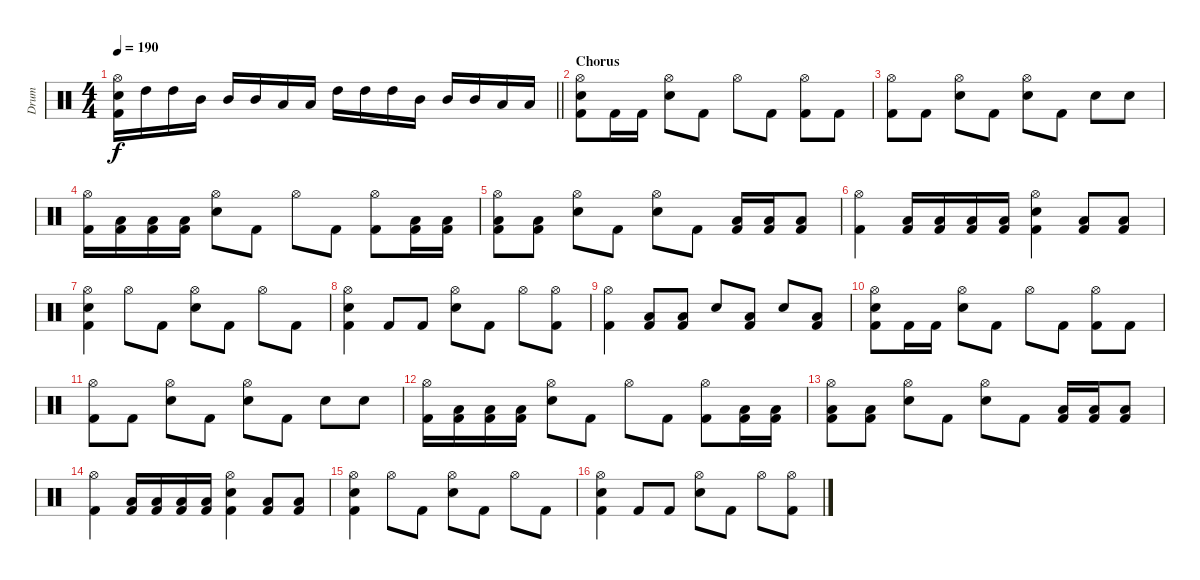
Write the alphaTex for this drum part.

\track ("Drum" "Drum") {instrument percussion}
\staff {score}
\articulation defaults
\ts (4 4)
\tempo 190
\clef neutral
\barLineRight lightlight
\ks c
("Hi-Hat (open)" "Snare (hit) 2" "Kick (hit) 2").16{dy f} "High Tom (hit)".16 "High Tom (hit)".16 "Mid Tom (hit)".16 "Mid Tom (hit)".16 "Mid Tom (hit)".16 "Low Tom (hit)".16 "Low Tom (hit)".16 "High Tom (hit)".16 "High Tom (hit)".16 "High Tom (hit)".16 "Mid Tom (hit)".16 "Mid Tom (hit)".16 "Mid Tom (hit)".16 "Low Tom (hit)".16 "Low Tom (hit)".16 |
\section ("" "Chorus")
("Hi-Hat (open)" "Snare (hit) 2" "Kick (hit) 2").8 "Kick (hit) 2".16 "Kick (hit) 2".16 ("Hi-Hat (open)" "Snare (hit) 2").8 "Kick (hit) 2".8 "Hi-Hat (open)".8 "Kick (hit) 2".8 ("Hi-Hat (open)" "Kick (hit) 2").8 "Kick (hit) 2".8 |
("Hi-Hat (open)" "Kick (hit) 2").8 "Kick (hit) 2".8 ("Hi-Hat (open)" "Snare (hit) 2").8 "Kick (hit) 2".8 ("Hi-Hat (open)" "Snare (hit) 2").8 "Kick (hit) 2".8 "Snare (hit) 2".8 "Snare (hit) 2".8 |
("Hi-Hat (open)" "Kick (hit) 2").16 ("Low Floor Tom (hit)" "Kick (hit) 2").16 ("Low Floor Tom (hit)" "Kick (hit) 2").16 ("Low Floor Tom (hit)" "Kick (hit) 2").16 ("Hi-Hat (open)" "Snare (hit) 2").8 "Kick (hit) 2".8 "Hi-Hat (open)".8 "Kick (hit) 2".8 ("Hi-Hat (open)" "Kick (hit) 2").8 ("Low Floor Tom (hit)" "Kick (hit) 2").16 ("Low Floor Tom (hit)" "Kick (hit) 2").16 |
("Hi-Hat (open)" "Low Floor Tom (hit)" "Kick (hit) 2").8 ("Low Floor Tom (hit)" "Kick (hit) 2").8 ("Hi-Hat (open)" "Snare (hit) 2").8 "Kick (hit) 2".8 ("Hi-Hat (open)" "Snare (hit) 2").8 "Kick (hit) 2".8 ("Low Floor Tom (hit)" "Kick (hit) 2").16 ("Low Floor Tom (hit)" "Kick (hit) 2").16 ("Low Floor Tom (hit)" "Kick (hit) 2").8 |
("Hi-Hat (open)" "Kick (hit) 2").4 ("Low Floor Tom (hit)" "Kick (hit) 2").16 ("Low Floor Tom (hit)" "Kick (hit) 2").16 ("Low Floor Tom (hit)" "Kick (hit) 2").16 ("Low Floor Tom (hit)" "Kick (hit) 2").16 ("Hi-Hat (open)" "Snare (hit) 2" "Kick (hit) 2").4 ("Low Tom (hit)" "Kick (hit) 2").8 ("Low Floor Tom (hit)" "Kick (hit) 2").8 |
("Hi-Hat (open)" "Snare (hit) 2" "Kick (hit) 2").4 "Hi-Hat (open)".8 "Kick (hit) 2".8 ("Hi-Hat (open)" "Snare (hit) 2").8 "Kick (hit) 2".8 "Hi-Hat (open)".8 "Kick (hit) 2".8 |
("Hi-Hat (open)" "Snare (hit) 2" "Kick (hit) 2").4 "Kick (hit) 2".8 "Kick (hit) 2".8 ("Hi-Hat (open)" "Snare (hit) 2").8 "Kick (hit) 2".8 "Hi-Hat (open)".8 ("Hi-Hat (open)" "Kick (hit) 2").8 |
("Hi-Hat (open)" "Kick (hit) 2").4 ("Low Floor Tom (hit)" "Kick (hit) 2").8 ("Low Floor Tom (hit)" "Kick (hit) 2").8 "Snare (hit) 2".8 ("Low Floor Tom (hit)" "Kick (hit) 2").8 "Snare (hit) 2".8 ("Low Floor Tom (hit)" "Kick (hit) 2").8 |
("Hi-Hat (open)" "Snare (hit) 2" "Kick (hit) 2").8 "Kick (hit) 2".16 "Kick (hit) 2".16 ("Hi-Hat (open)" "Snare (hit) 2").8 "Kick (hit) 2".8 "Hi-Hat (open)".8 "Kick (hit) 2".8 ("Hi-Hat (open)" "Kick (hit) 2").8 "Kick (hit) 2".8 |
("Hi-Hat (open)" "Kick (hit) 2").8 "Kick (hit) 2".8 ("Hi-Hat (open)" "Snare (hit) 2").8 "Kick (hit) 2".8 ("Hi-Hat (open)" "Snare (hit) 2").8 "Kick (hit) 2".8 "Snare (hit) 2".8 "Snare (hit) 2".8 |
("Hi-Hat (open)" "Kick (hit) 2").16 ("Low Floor Tom (hit)" "Kick (hit) 2").16 ("Low Floor Tom (hit)" "Kick (hit) 2").16 ("Low Floor Tom (hit)" "Kick (hit) 2").16 ("Hi-Hat (open)" "Snare (hit) 2").8 "Kick (hit) 2".8 "Hi-Hat (open)".8 "Kick (hit) 2".8 ("Hi-Hat (open)" "Kick (hit) 2").8 ("Low Floor Tom (hit)" "Kick (hit) 2").16 ("Low Floor Tom (hit)" "Kick (hit) 2").16 |
("Hi-Hat (open)" "Low Floor Tom (hit)" "Kick (hit) 2").8 ("Low Floor Tom (hit)" "Kick (hit) 2").8 ("Hi-Hat (open)" "Snare (hit) 2").8 "Kick (hit) 2".8 ("Hi-Hat (open)" "Snare (hit) 2").8 "Kick (hit) 2".8 ("Low Floor Tom (hit)" "Kick (hit) 2").16 ("Low Floor Tom (hit)" "Kick (hit) 2").16 ("Low Floor Tom (hit)" "Kick (hit) 2").8 |
("Hi-Hat (open)" "Kick (hit) 2").4 ("Low Floor Tom (hit)" "Kick (hit) 2").16 ("Low Floor Tom (hit)" "Kick (hit) 2").16 ("Low Floor Tom (hit)" "Kick (hit) 2").16 ("Low Floor Tom (hit)" "Kick (hit) 2").16 ("Hi-Hat (open)" "Snare (hit) 2" "Kick (hit) 2").4 ("Low Tom (hit)" "Kick (hit) 2").8 ("Low Floor Tom (hit)" "Kick (hit) 2").8 |
("Hi-Hat (open)" "Snare (hit) 2" "Kick (hit) 2").4 "Hi-Hat (open)".8 "Kick (hit) 2".8 ("Hi-Hat (open)" "Snare (hit) 2").8 "Kick (hit) 2".8 "Hi-Hat (open)".8 "Kick (hit) 2".8 |
("Hi-Hat (open)" "Snare (hit) 2" "Kick (hit) 2").4 "Kick (hit) 2".8 "Kick (hit) 2".8 ("Hi-Hat (open)" "Snare (hit) 2").8 "Kick (hit) 2".8 "Hi-Hat (open)".8 ("Hi-Hat (open)" "Kick (hit) 2").8
